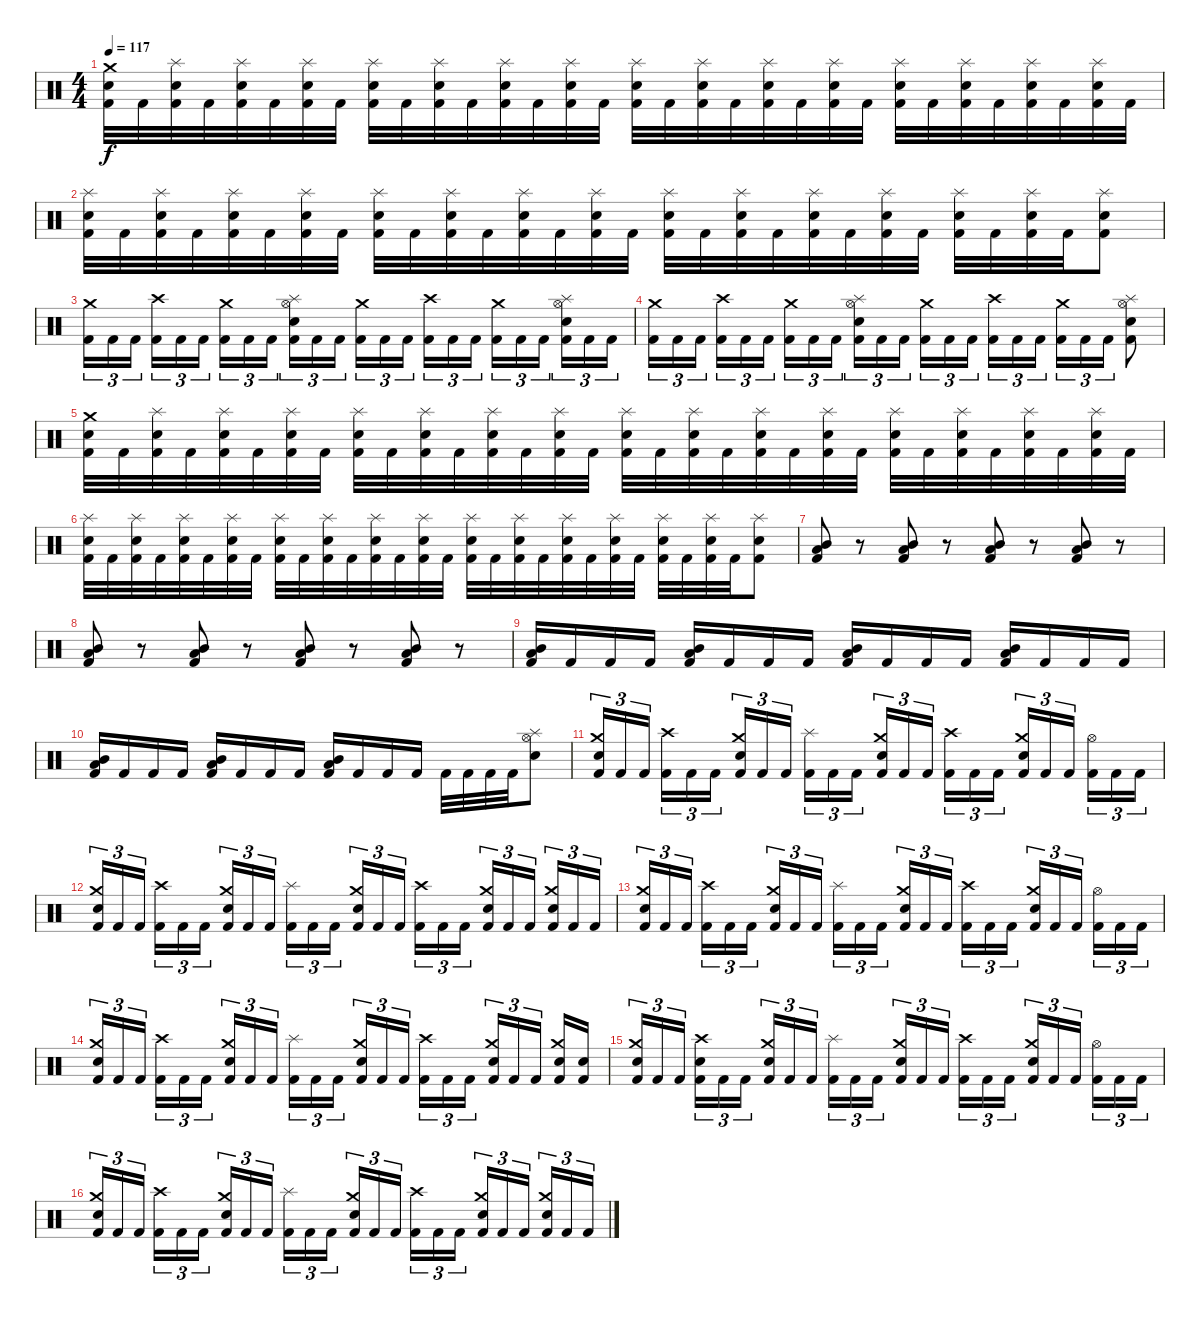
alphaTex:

\track "" {instrument percussion}
\staff {score}
\articulation defaults
\ts (4 4)
\tempo 117
\clef neutral
\ks c
("Electric Snare (hit)" "Crash medium (hit)" "Kick (hit) 2").32{dy f} "Kick (hit) 2".32 ("Electric Snare (hit)" "Splash (hit)" "Kick (hit) 2").32 "Kick (hit) 2".32 ("Electric Snare (hit)" "Splash (hit)" "Kick (hit) 2").32 "Kick (hit) 2".32 ("Electric Snare (hit)" "Splash (hit)" "Kick (hit) 2").32 "Kick (hit) 2".32 ("Electric Snare (hit)" "Splash (hit)" "Kick (hit) 2").32 "Kick (hit) 2".32 ("Electric Snare (hit)" "Splash (hit)" "Kick (hit) 2").32 "Kick (hit) 2".32 ("Electric Snare (hit)" "Splash (hit)" "Kick (hit) 2").32 "Kick (hit) 2".32 ("Electric Snare (hit)" "Splash (hit)" "Kick (hit) 2").32 "Kick (hit) 2".32 ("Electric Snare (hit)" "Splash (hit)" "Kick (hit) 2").32 "Kick (hit) 2".32 ("Electric Snare (hit)" "Splash (hit)" "Kick (hit) 2").32 "Kick (hit) 2".32 ("Electric Snare (hit)" "Splash (hit)" "Kick (hit) 2").32 "Kick (hit) 2".32 ("Electric Snare (hit)" "Splash (hit)" "Kick (hit) 2").32 "Kick (hit) 2".32 ("Electric Snare (hit)" "Splash (hit)" "Kick (hit) 2").32 "Kick (hit) 2".32 ("Electric Snare (hit)" "Splash (hit)" "Kick (hit) 2").32 "Kick (hit) 2".32 ("Electric Snare (hit)" "Splash (hit)" "Kick (hit) 2").32 "Kick (hit) 2".32 ("Electric Snare (hit)" "Splash (hit)" "Kick (hit) 2").32 "Kick (hit) 2".32 |
("Electric Snare (hit)" "Splash (hit)" "Kick (hit) 2").32 "Kick (hit) 2".32 ("Electric Snare (hit)" "Splash (hit)" "Kick (hit) 2").32 "Kick (hit) 2".32 ("Electric Snare (hit)" "Splash (hit)" "Kick (hit) 2").32 "Kick (hit) 2".32 ("Electric Snare (hit)" "Splash (hit)" "Kick (hit) 2").32 "Kick (hit) 2".32 ("Electric Snare (hit)" "Splash (hit)" "Kick (hit) 2").32 "Kick (hit) 2".32 ("Electric Snare (hit)" "Splash (hit)" "Kick (hit) 2").32 "Kick (hit) 2".32 ("Electric Snare (hit)" "Splash (hit)" "Kick (hit) 2").32 "Kick (hit) 2".32 ("Electric Snare (hit)" "Splash (hit)" "Kick (hit) 2").32 "Kick (hit) 2".32 ("Electric Snare (hit)" "Splash (hit)" "Kick (hit) 2").32 "Kick (hit) 2".32 ("Electric Snare (hit)" "Splash (hit)" "Kick (hit) 2").32 "Kick (hit) 2".32 ("Electric Snare (hit)" "Splash (hit)" "Kick (hit) 2").32 "Kick (hit) 2".32 ("Electric Snare (hit)" "Splash (hit)" "Kick (hit) 2").32 "Kick (hit) 2".32 ("Electric Snare (hit)" "Splash (hit)" "Kick (hit) 2").32 "Kick (hit) 2".32 ("Electric Snare (hit)" "Splash (hit)" "Kick (hit) 2").32 "Kick (hit) 2".32 ("Electric Snare (hit)" "Splash (hit)" "Kick (hit) 2").8 |
("Kick (hit) 2" "Crash medium (hit)").16{tu (3 2)} "Kick (hit) 2".16{tu (3 2)} "Kick (hit) 2".16{tu (3 2)} ("Kick (hit) 2" "Crash high (hit)").16{tu (3 2)} "Kick (hit) 2".16{tu (3 2)} "Kick (hit) 2".16{tu (3 2)} ("Kick (hit) 2" "Crash medium (hit)").16{tu (3 2)} "Kick (hit) 2".16{tu (3 2)} "Kick (hit) 2".16{tu (3 2)} ("Kick (hit) 2" "Electric Snare (hit)" "Hi-Hat (open)" "Splash (hit)").16{tu (3 2)} "Kick (hit) 2".16{tu (3 2)} "Kick (hit) 2".16{tu (3 2)} ("Kick (hit) 2" "Crash medium (hit)").16{tu (3 2)} "Kick (hit) 2".16{tu (3 2)} "Kick (hit) 2".16{tu (3 2)} ("Kick (hit) 2" "Crash high (hit)").16{tu (3 2)} "Kick (hit) 2".16{tu (3 2)} "Kick (hit) 2".16{tu (3 2)} ("Kick (hit) 2" "Crash medium (hit)").16{tu (3 2)} "Kick (hit) 2".16{tu (3 2)} "Kick (hit) 2".16{tu (3 2)} ("Kick (hit) 2" "Electric Snare (hit)" "Splash (hit)" "Hi-Hat (open)").16{tu (3 2)} "Kick (hit) 2".16{tu (3 2)} "Kick (hit) 2".16{tu (3 2)} |
("Kick (hit) 2" "Crash medium (hit)").16{tu (3 2)} "Kick (hit) 2".16{tu (3 2)} "Kick (hit) 2".16{tu (3 2)} ("Kick (hit) 2" "Crash high (hit)").16{tu (3 2)} "Kick (hit) 2".16{tu (3 2)} "Kick (hit) 2".16{tu (3 2)} ("Kick (hit) 2" "Crash medium (hit)").16{tu (3 2)} "Kick (hit) 2".16{tu (3 2)} "Kick (hit) 2".16{tu (3 2)} ("Kick (hit) 2" "Electric Snare (hit)" "Hi-Hat (open)" "Splash (hit)").16{tu (3 2)} "Kick (hit) 2".16{tu (3 2)} "Kick (hit) 2".16{tu (3 2)} ("Kick (hit) 2" "Crash medium (hit)").16{tu (3 2)} "Kick (hit) 2".16{tu (3 2)} "Kick (hit) 2".16{tu (3 2)} ("Kick (hit) 2" "Crash high (hit)").16{tu (3 2)} "Kick (hit) 2".16{tu (3 2)} "Kick (hit) 2".16{tu (3 2)} ("Kick (hit) 2" "Crash medium (hit)").16{tu (3 2)} "Kick (hit) 2".16{tu (3 2)} "Kick (hit) 2".16{tu (3 2)} ("Kick (hit) 2" "Electric Snare (hit)" "Splash (hit)" "Hi-Hat (open)").8 |
("Electric Snare (hit)" "Crash medium (hit)" "Kick (hit) 2").32 "Kick (hit) 2".32 ("Electric Snare (hit)" "Splash (hit)" "Kick (hit) 2").32 "Kick (hit) 2".32 ("Electric Snare (hit)" "Splash (hit)" "Kick (hit) 2").32 "Kick (hit) 2".32 ("Electric Snare (hit)" "Splash (hit)" "Kick (hit) 2").32 "Kick (hit) 2".32 ("Electric Snare (hit)" "Splash (hit)" "Kick (hit) 2").32 "Kick (hit) 2".32 ("Electric Snare (hit)" "Splash (hit)" "Kick (hit) 2").32 "Kick (hit) 2".32 ("Electric Snare (hit)" "Splash (hit)" "Kick (hit) 2").32 "Kick (hit) 2".32 ("Electric Snare (hit)" "Splash (hit)" "Kick (hit) 2").32 "Kick (hit) 2".32 ("Electric Snare (hit)" "Splash (hit)" "Kick (hit) 2").32 "Kick (hit) 2".32 ("Electric Snare (hit)" "Splash (hit)" "Kick (hit) 2").32 "Kick (hit) 2".32 ("Electric Snare (hit)" "Splash (hit)" "Kick (hit) 2").32 "Kick (hit) 2".32 ("Electric Snare (hit)" "Splash (hit)" "Kick (hit) 2").32 "Kick (hit) 2".32 ("Electric Snare (hit)" "Splash (hit)" "Kick (hit) 2").32 "Kick (hit) 2".32 ("Electric Snare (hit)" "Splash (hit)" "Kick (hit) 2").32 "Kick (hit) 2".32 ("Electric Snare (hit)" "Splash (hit)" "Kick (hit) 2").32 "Kick (hit) 2".32 ("Electric Snare (hit)" "Splash (hit)" "Kick (hit) 2").32 "Kick (hit) 2".32 |
("Electric Snare (hit)" "Splash (hit)" "Kick (hit) 2").32 "Kick (hit) 2".32 ("Electric Snare (hit)" "Splash (hit)" "Kick (hit) 2").32 "Kick (hit) 2".32 ("Electric Snare (hit)" "Splash (hit)" "Kick (hit) 2").32 "Kick (hit) 2".32 ("Electric Snare (hit)" "Splash (hit)" "Kick (hit) 2").32 "Kick (hit) 2".32 ("Electric Snare (hit)" "Splash (hit)" "Kick (hit) 2").32 "Kick (hit) 2".32 ("Electric Snare (hit)" "Splash (hit)" "Kick (hit) 2").32 "Kick (hit) 2".32 ("Electric Snare (hit)" "Splash (hit)" "Kick (hit) 2").32 "Kick (hit) 2".32 ("Electric Snare (hit)" "Splash (hit)" "Kick (hit) 2").32 "Kick (hit) 2".32 ("Electric Snare (hit)" "Splash (hit)" "Kick (hit) 2").32 "Kick (hit) 2".32 ("Electric Snare (hit)" "Splash (hit)" "Kick (hit) 2").32 "Kick (hit) 2".32 ("Electric Snare (hit)" "Splash (hit)" "Kick (hit) 2").32 "Kick (hit) 2".32 ("Electric Snare (hit)" "Splash (hit)" "Kick (hit) 2").32 "Kick (hit) 2".32 ("Electric Snare (hit)" "Splash (hit)" "Kick (hit) 2").32 "Kick (hit) 2".32 ("Electric Snare (hit)" "Splash (hit)" "Kick (hit) 2").32 "Kick (hit) 2".32 ("Electric Snare (hit)" "Splash (hit)" "Kick (hit) 2").8 |
("Mid Tom (hit)" "Low Tom (hit)" "Kick (hit) 2").8 r.8 ("Mid Tom (hit)" "Low Tom (hit)" "Kick (hit) 2").8 r.8 ("Mid Tom (hit)" "Low Tom (hit)" "Kick (hit) 2").8 r.8 ("Mid Tom (hit)" "Low Tom (hit)" "Kick (hit) 2").8 r.8 |
("Mid Tom (hit)" "Low Tom (hit)" "Kick (hit) 2").8 r.8 ("Mid Tom (hit)" "Low Tom (hit)" "Kick (hit) 2").8 r.8 ("Mid Tom (hit)" "Low Tom (hit)" "Kick (hit) 2").8 r.8 ("Mid Tom (hit)" "Low Tom (hit)" "Kick (hit) 2").8 r.8 |
("Mid Tom (hit)" "Low Tom (hit)" "Kick (hit) 2").16 "Kick (hit) 2".16 "Kick (hit) 2".16 "Kick (hit) 2".16 ("Mid Tom (hit)" "Low Tom (hit)" "Kick (hit) 2").16 "Kick (hit) 2".16 "Kick (hit) 2".16 "Kick (hit) 2".16 ("Mid Tom (hit)" "Low Tom (hit)" "Kick (hit) 2").16 "Kick (hit) 2".16 "Kick (hit) 2".16 "Kick (hit) 2".16 ("Mid Tom (hit)" "Low Tom (hit)" "Kick (hit) 2").16 "Kick (hit) 2".16 "Kick (hit) 2".16 "Kick (hit) 2".16 |
("Mid Tom (hit)" "Low Tom (hit)" "Kick (hit) 2").16 "Kick (hit) 2".16 "Kick (hit) 2".16 "Kick (hit) 2".16 ("Mid Tom (hit)" "Low Tom (hit)" "Kick (hit) 2").16 "Kick (hit) 2".16 "Kick (hit) 2".16 "Kick (hit) 2".16 ("Mid Tom (hit)" "Low Tom (hit)" "Kick (hit) 2").16 "Kick (hit) 2".16 "Kick (hit) 2".16 "Kick (hit) 2".16 "Kick (hit) 2".32 "Kick (hit) 2".32 "Kick (hit) 2".32 "Kick (hit) 2".32 ("Splash (hit)" "Hi-Hat (open)" "Electric Snare (hit)").8 |
("Kick (hit) 2" "Electric Snare (hit)" "Crash medium (hit)").16{tu (3 2)} "Kick (hit) 2".16{tu (3 2)} "Kick (hit) 2".16{tu (3 2)} ("Kick (hit) 2" "Crash high (hit)").16{tu (3 2)} "Kick (hit) 2".16{tu (3 2)} "Kick (hit) 2".16{tu (3 2)} ("Kick (hit) 2" "Electric Snare (hit)" "Crash medium (hit)").16{tu (3 2)} "Kick (hit) 2".16{tu (3 2)} "Kick (hit) 2".16{tu (3 2)} ("Kick (hit) 2" "Splash (hit)").16{tu (3 2)} "Kick (hit) 2".16{tu (3 2)} "Kick (hit) 2".16{tu (3 2)} ("Kick (hit) 2" "Electric Snare (hit)" "Crash medium (hit)").16{tu (3 2)} "Kick (hit) 2".16{tu (3 2)} "Kick (hit) 2".16{tu (3 2)} ("Kick (hit) 2" "Crash high (hit)").16{tu (3 2)} "Kick (hit) 2".16{tu (3 2)} "Kick (hit) 2".16{tu (3 2)} ("Kick (hit) 2" "Electric Snare (hit)" "Crash medium (hit)").16{tu (3 2)} "Kick (hit) 2".16{tu (3 2)} "Kick (hit) 2".16{tu (3 2)} ("Kick (hit) 2" "Hi-Hat (open)").16{tu (3 2)} "Kick (hit) 2".16{tu (3 2)} "Kick (hit) 2".16{tu (3 2)} |
("Kick (hit) 2" "Electric Snare (hit)" "Crash medium (hit)").16{tu (3 2)} "Kick (hit) 2".16{tu (3 2)} "Kick (hit) 2".16{tu (3 2)} ("Kick (hit) 2" "Crash high (hit)").16{tu (3 2)} "Kick (hit) 2".16{tu (3 2)} "Kick (hit) 2".16{tu (3 2)} ("Kick (hit) 2" "Electric Snare (hit)" "Crash medium (hit)").16{tu (3 2)} "Kick (hit) 2".16{tu (3 2)} "Kick (hit) 2".16{tu (3 2)} ("Kick (hit) 2" "Splash (hit)").16{tu (3 2)} "Kick (hit) 2".16{tu (3 2)} "Kick (hit) 2".16{tu (3 2)} ("Kick (hit) 2" "Electric Snare (hit)" "Crash medium (hit)").16{tu (3 2)} "Kick (hit) 2".16{tu (3 2)} "Kick (hit) 2".16{tu (3 2)} ("Kick (hit) 2" "Crash high (hit)").16{tu (3 2)} "Kick (hit) 2".16{tu (3 2)} "Kick (hit) 2".16{tu (3 2)} ("Kick (hit) 2" "Electric Snare (hit)" "Crash medium (hit)").16{tu (3 2)} "Kick (hit) 2".16{tu (3 2)} "Kick (hit) 2".16{tu (3 2)} ("Kick (hit) 2" "Electric Snare (hit)" "Crash medium (hit)").16{tu (3 2)} "Kick (hit) 2".16{tu (3 2)} "Kick (hit) 2".16{tu (3 2)} |
("Kick (hit) 2" "Electric Snare (hit)" "Crash medium (hit)").16{tu (3 2)} "Kick (hit) 2".16{tu (3 2)} "Kick (hit) 2".16{tu (3 2)} ("Kick (hit) 2" "Crash high (hit)").16{tu (3 2)} "Kick (hit) 2".16{tu (3 2)} "Kick (hit) 2".16{tu (3 2)} ("Kick (hit) 2" "Electric Snare (hit)" "Crash medium (hit)").16{tu (3 2)} "Kick (hit) 2".16{tu (3 2)} "Kick (hit) 2".16{tu (3 2)} ("Kick (hit) 2" "Splash (hit)").16{tu (3 2)} "Kick (hit) 2".16{tu (3 2)} "Kick (hit) 2".16{tu (3 2)} ("Kick (hit) 2" "Electric Snare (hit)" "Crash medium (hit)").16{tu (3 2)} "Kick (hit) 2".16{tu (3 2)} "Kick (hit) 2".16{tu (3 2)} ("Kick (hit) 2" "Crash high (hit)").16{tu (3 2)} "Kick (hit) 2".16{tu (3 2)} "Kick (hit) 2".16{tu (3 2)} ("Kick (hit) 2" "Electric Snare (hit)" "Crash medium (hit)").16{tu (3 2)} "Kick (hit) 2".16{tu (3 2)} "Kick (hit) 2".16{tu (3 2)} ("Kick (hit) 2" "Hi-Hat (open)").16{tu (3 2)} "Kick (hit) 2".16{tu (3 2)} "Kick (hit) 2".16{tu (3 2)} |
("Kick (hit) 2" "Electric Snare (hit)" "Crash medium (hit)").16{tu (3 2)} "Kick (hit) 2".16{tu (3 2)} "Kick (hit) 2".16{tu (3 2)} ("Kick (hit) 2" "Crash high (hit)").16{tu (3 2)} "Kick (hit) 2".16{tu (3 2)} "Kick (hit) 2".16{tu (3 2)} ("Kick (hit) 2" "Electric Snare (hit)" "Crash medium (hit)").16{tu (3 2)} "Kick (hit) 2".16{tu (3 2)} "Kick (hit) 2".16{tu (3 2)} ("Kick (hit) 2" "Splash (hit)").16{tu (3 2)} "Kick (hit) 2".16{tu (3 2)} "Kick (hit) 2".16{tu (3 2)} ("Kick (hit) 2" "Electric Snare (hit)" "Crash medium (hit)").16{tu (3 2)} "Kick (hit) 2".16{tu (3 2)} "Kick (hit) 2".16{tu (3 2)} ("Kick (hit) 2" "Crash high (hit)").16{tu (3 2)} "Kick (hit) 2".16{tu (3 2)} "Kick (hit) 2".16{tu (3 2)} ("Kick (hit) 2" "Electric Snare (hit)" "Crash medium (hit)").16{tu (3 2)} "Kick (hit) 2".16{tu (3 2)} "Kick (hit) 2".16{tu (3 2)} ("Kick (hit) 2" "Electric Snare (hit)" "Crash medium (hit)").16 ("Kick (hit) 2" "Electric Snare (hit)").16 |
("Kick (hit) 2" "Electric Snare (hit)" "Crash medium (hit)").16{tu (3 2)} "Kick (hit) 2".16{tu (3 2)} "Kick (hit) 2".16{tu (3 2)} ("Kick (hit) 2" "Electric Snare (hit)" "Crash high (hit)").16{tu (3 2)} "Kick (hit) 2".16{tu (3 2)} "Kick (hit) 2".16{tu (3 2)} ("Kick (hit) 2" "Electric Snare (hit)" "Crash medium (hit)").16{tu (3 2)} "Kick (hit) 2".16{tu (3 2)} "Kick (hit) 2".16{tu (3 2)} ("Kick (hit) 2" "Splash (hit)").16{tu (3 2)} "Kick (hit) 2".16{tu (3 2)} "Kick (hit) 2".16{tu (3 2)} ("Kick (hit) 2" "Electric Snare (hit)" "Crash medium (hit)").16{tu (3 2)} "Kick (hit) 2".16{tu (3 2)} "Kick (hit) 2".16{tu (3 2)} ("Kick (hit) 2" "Crash high (hit)").16{tu (3 2)} "Kick (hit) 2".16{tu (3 2)} "Kick (hit) 2".16{tu (3 2)} ("Kick (hit) 2" "Electric Snare (hit)" "Crash medium (hit)").16{tu (3 2)} "Kick (hit) 2".16{tu (3 2)} "Kick (hit) 2".16{tu (3 2)} ("Kick (hit) 2" "Hi-Hat (open)").16{tu (3 2)} "Kick (hit) 2".16{tu (3 2)} "Kick (hit) 2".16{tu (3 2)} |
("Kick (hit) 2" "Electric Snare (hit)" "Crash medium (hit)").16{tu (3 2)} "Kick (hit) 2".16{tu (3 2)} "Kick (hit) 2".16{tu (3 2)} ("Kick (hit) 2" "Crash high (hit)").16{tu (3 2)} "Kick (hit) 2".16{tu (3 2)} "Kick (hit) 2".16{tu (3 2)} ("Kick (hit) 2" "Electric Snare (hit)" "Crash medium (hit)").16{tu (3 2)} "Kick (hit) 2".16{tu (3 2)} "Kick (hit) 2".16{tu (3 2)} ("Kick (hit) 2" "Splash (hit)").16{tu (3 2)} "Kick (hit) 2".16{tu (3 2)} "Kick (hit) 2".16{tu (3 2)} ("Kick (hit) 2" "Electric Snare (hit)" "Crash medium (hit)").16{tu (3 2)} "Kick (hit) 2".16{tu (3 2)} "Kick (hit) 2".16{tu (3 2)} ("Kick (hit) 2" "Crash high (hit)").16{tu (3 2)} "Kick (hit) 2".16{tu (3 2)} "Kick (hit) 2".16{tu (3 2)} ("Kick (hit) 2" "Electric Snare (hit)" "Crash medium (hit)").16{tu (3 2)} "Kick (hit) 2".16{tu (3 2)} "Kick (hit) 2".16{tu (3 2)} ("Kick (hit) 2" "Electric Snare (hit)" "Crash medium (hit)").16{tu (3 2)} "Kick (hit) 2".16{tu (3 2)} "Kick (hit) 2".16{tu (3 2)}
